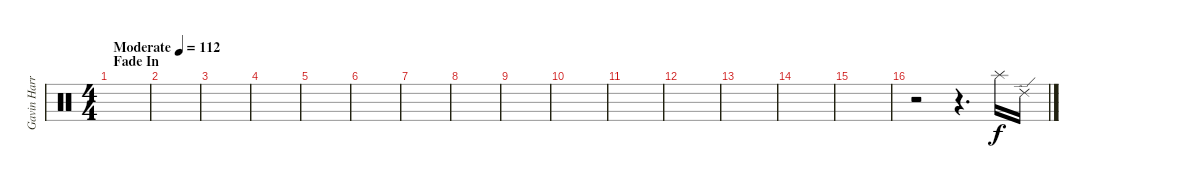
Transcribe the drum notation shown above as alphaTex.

\track ("Gavin Harrison - Drums" "Gavin Harr") {instrument percussion}
\staff {score}
\articulation defaults
\ts (4 4)
\section ("" "Fade In")
\tempo (112 "Moderate")
\clef neutral
\ks c
|
|
|
|
|
|
|
|
|
|
|
|
|
|
|
r.2 r.4{d} "Splash (hit)".16 "Ride (edge) 2".16
